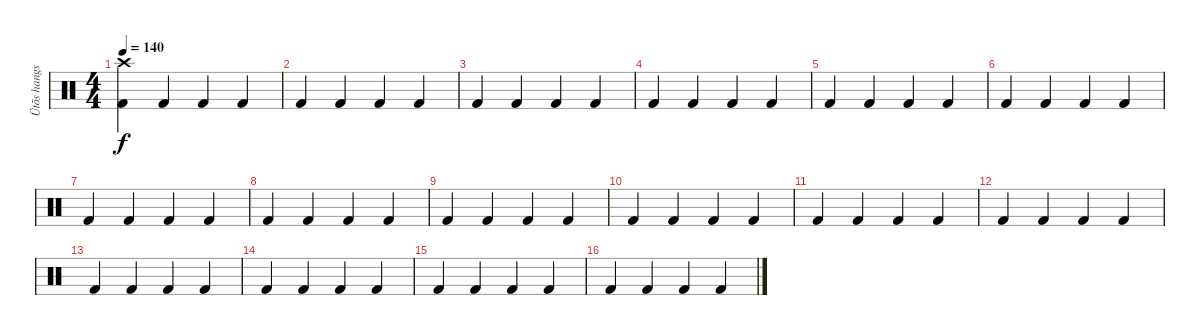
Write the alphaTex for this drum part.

\track ("Ütõs hangszer" "Ütõs hangs") {instrument percussion}
\staff {score}
\articulation defaults
\ts (4 4)
\tempo 140
\clef neutral
\ks c
("Kick (hit) 2" "Crash high (hit)").4{dy f} "Kick (hit) 2".4 "Kick (hit) 2".4 "Kick (hit) 2".4 |
"Kick (hit) 2".4 "Kick (hit) 2".4 "Kick (hit) 2".4 "Kick (hit) 2".4 |
"Kick (hit) 2".4 "Kick (hit) 2".4 "Kick (hit) 2".4 "Kick (hit) 2".4 |
"Kick (hit) 2".4 "Kick (hit) 2".4 "Kick (hit) 2".4 "Kick (hit) 2".4 |
"Kick (hit) 2".4 "Kick (hit) 2".4 "Kick (hit) 2".4 "Kick (hit) 2".4 |
"Kick (hit) 2".4 "Kick (hit) 2".4 "Kick (hit) 2".4 "Kick (hit) 2".4 |
"Kick (hit) 2".4 "Kick (hit) 2".4 "Kick (hit) 2".4 "Kick (hit) 2".4 |
"Kick (hit) 2".4 "Kick (hit) 2".4 "Kick (hit) 2".4 "Kick (hit) 2".4 |
"Kick (hit) 2".4 "Kick (hit) 2".4 "Kick (hit) 2".4 "Kick (hit) 2".4 |
"Kick (hit) 2".4 "Kick (hit) 2".4 "Kick (hit) 2".4 "Kick (hit) 2".4 |
"Kick (hit) 2".4 "Kick (hit) 2".4 "Kick (hit) 2".4 "Kick (hit) 2".4 |
"Kick (hit) 2".4 "Kick (hit) 2".4 "Kick (hit) 2".4 "Kick (hit) 2".4 |
"Kick (hit) 2".4 "Kick (hit) 2".4 "Kick (hit) 2".4 "Kick (hit) 2".4 |
"Kick (hit) 2".4 "Kick (hit) 2".4 "Kick (hit) 2".4 "Kick (hit) 2".4 |
"Kick (hit) 2".4 "Kick (hit) 2".4 "Kick (hit) 2".4 "Kick (hit) 2".4 |
"Kick (hit) 2".4 "Kick (hit) 2".4 "Kick (hit) 2".4 "Kick (hit) 2".4
